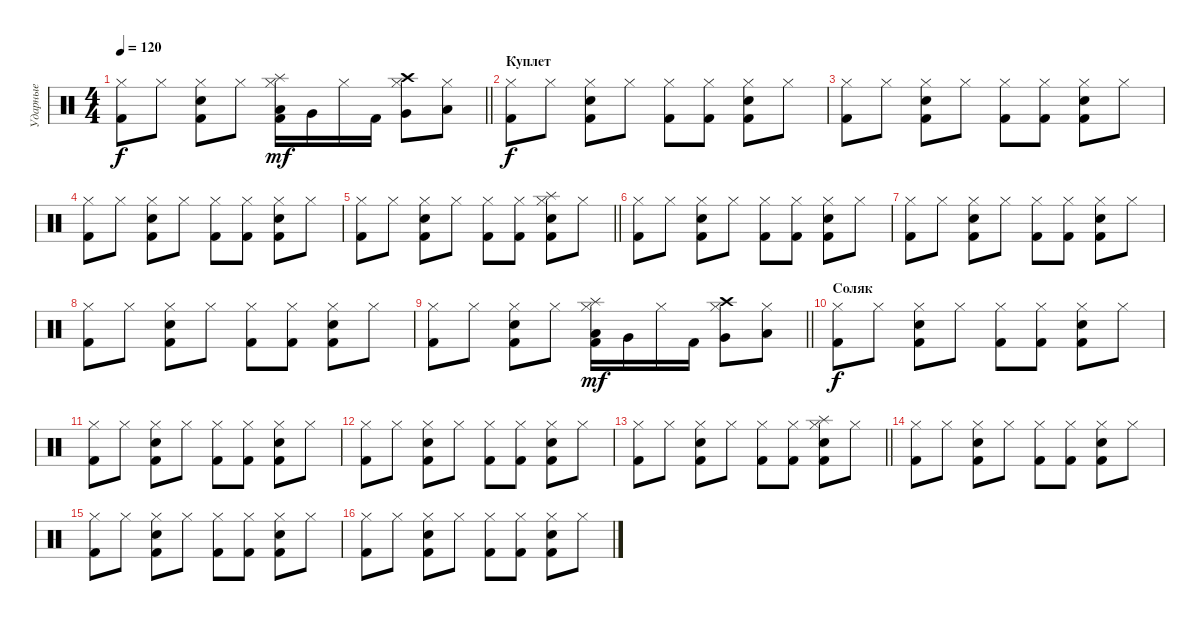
\track ("Ударные" "Ударные") {instrument percussion}
\staff {score}
\articulation defaults
\ts (4 4)
\tempo 120
\clef neutral
\barLineRight lightlight
\ks c
("Hi-Hat (closed)" "Kick (hit) 2").8{dy f} "Hi-Hat (closed)".8 ("Hi-Hat (closed)" "Kick (hit) 2" "Electric Snare (hit)").8 "Hi-Hat (closed)".8 ("Low Tom (hit)" "Hi-Hat (closed)" "Kick (hit) 2" "Splash (hit)").16{dy mf} "Very Low Tom (hit)".16 "Hi-Hat (closed)".16 "Kick (hit) 2".16 ("Very Low Tom (hit)" "Hi-Hat (closed)" "Crash high (hit)").8 ("Low Floor Tom (hit)" "Hi-Hat (closed)").8 |
\section ("" "Куплет")
("Hi-Hat (closed)" "Kick (hit) 2").8{dy f} "Hi-Hat (closed)".8 ("Hi-Hat (closed)" "Kick (hit) 2" "Electric Snare (hit)").8 "Hi-Hat (closed)".8 ("Hi-Hat (closed)" "Kick (hit) 2").8 ("Hi-Hat (closed)" "Kick (hit) 2").8 ("Hi-Hat (closed)" "Kick (hit) 2" "Electric Snare (hit)").8 "Hi-Hat (closed)".8 |
("Hi-Hat (closed)" "Kick (hit) 2").8 "Hi-Hat (closed)".8 ("Hi-Hat (closed)" "Kick (hit) 2" "Electric Snare (hit)").8 "Hi-Hat (closed)".8 ("Hi-Hat (closed)" "Kick (hit) 2").8 ("Hi-Hat (closed)" "Kick (hit) 2").8 ("Hi-Hat (closed)" "Kick (hit) 2" "Electric Snare (hit)").8 "Hi-Hat (closed)".8 |
("Hi-Hat (closed)" "Kick (hit) 2").8 "Hi-Hat (closed)".8 ("Hi-Hat (closed)" "Kick (hit) 2" "Electric Snare (hit)").8 "Hi-Hat (closed)".8 ("Hi-Hat (closed)" "Kick (hit) 2").8 ("Hi-Hat (closed)" "Kick (hit) 2").8 ("Hi-Hat (closed)" "Kick (hit) 2" "Electric Snare (hit)").8 "Hi-Hat (closed)".8 |
\barLineRight lightlight
("Hi-Hat (closed)" "Kick (hit) 2").8 "Hi-Hat (closed)".8 ("Hi-Hat (closed)" "Kick (hit) 2" "Electric Snare (hit)").8 "Hi-Hat (closed)".8 ("Hi-Hat (closed)" "Kick (hit) 2").8 ("Hi-Hat (closed)" "Kick (hit) 2").8 ("Hi-Hat (closed)" "Kick (hit) 2" "Electric Snare (hit)" "Splash (hit)").8 "Hi-Hat (closed)".8 |
("Hi-Hat (closed)" "Kick (hit) 2").8 "Hi-Hat (closed)".8 ("Hi-Hat (closed)" "Kick (hit) 2" "Electric Snare (hit)").8 "Hi-Hat (closed)".8 ("Hi-Hat (closed)" "Kick (hit) 2").8 ("Hi-Hat (closed)" "Kick (hit) 2").8 ("Hi-Hat (closed)" "Kick (hit) 2" "Electric Snare (hit)").8 "Hi-Hat (closed)".8 |
("Hi-Hat (closed)" "Kick (hit) 2").8 "Hi-Hat (closed)".8 ("Hi-Hat (closed)" "Kick (hit) 2" "Electric Snare (hit)").8 "Hi-Hat (closed)".8 ("Hi-Hat (closed)" "Kick (hit) 2").8 ("Hi-Hat (closed)" "Kick (hit) 2").8 ("Hi-Hat (closed)" "Kick (hit) 2" "Electric Snare (hit)").8 "Hi-Hat (closed)".8 |
("Hi-Hat (closed)" "Kick (hit) 2").8 "Hi-Hat (closed)".8 ("Hi-Hat (closed)" "Kick (hit) 2" "Electric Snare (hit)").8 "Hi-Hat (closed)".8 ("Hi-Hat (closed)" "Kick (hit) 2").8 ("Hi-Hat (closed)" "Kick (hit) 2").8 ("Hi-Hat (closed)" "Kick (hit) 2" "Electric Snare (hit)").8 "Hi-Hat (closed)".8 |
\barLineRight lightlight
("Hi-Hat (closed)" "Kick (hit) 2").8 "Hi-Hat (closed)".8 ("Hi-Hat (closed)" "Kick (hit) 2" "Electric Snare (hit)").8 "Hi-Hat (closed)".8 ("Low Tom (hit)" "Hi-Hat (closed)" "Kick (hit) 2" "Splash (hit)").16{dy mf} "Very Low Tom (hit)".16 "Hi-Hat (closed)".16 "Kick (hit) 2".16 ("Very Low Tom (hit)" "Hi-Hat (closed)" "Crash high (hit)").8 ("Low Floor Tom (hit)" "Hi-Hat (closed)").8 |
\section ("" "Соляк")
("Hi-Hat (closed)" "Kick (hit) 2").8{dy f} "Hi-Hat (closed)".8 ("Hi-Hat (closed)" "Kick (hit) 2" "Electric Snare (hit)").8 "Hi-Hat (closed)".8 ("Hi-Hat (closed)" "Kick (hit) 2").8 ("Hi-Hat (closed)" "Kick (hit) 2").8 ("Hi-Hat (closed)" "Kick (hit) 2" "Electric Snare (hit)").8 "Hi-Hat (closed)".8 |
("Hi-Hat (closed)" "Kick (hit) 2").8 "Hi-Hat (closed)".8 ("Hi-Hat (closed)" "Kick (hit) 2" "Electric Snare (hit)").8 "Hi-Hat (closed)".8 ("Hi-Hat (closed)" "Kick (hit) 2").8 ("Hi-Hat (closed)" "Kick (hit) 2").8 ("Hi-Hat (closed)" "Kick (hit) 2" "Electric Snare (hit)").8 "Hi-Hat (closed)".8 |
("Hi-Hat (closed)" "Kick (hit) 2").8 "Hi-Hat (closed)".8 ("Hi-Hat (closed)" "Kick (hit) 2" "Electric Snare (hit)").8 "Hi-Hat (closed)".8 ("Hi-Hat (closed)" "Kick (hit) 2").8 ("Hi-Hat (closed)" "Kick (hit) 2").8 ("Hi-Hat (closed)" "Kick (hit) 2" "Electric Snare (hit)").8 "Hi-Hat (closed)".8 |
\barLineRight lightlight
("Hi-Hat (closed)" "Kick (hit) 2").8 "Hi-Hat (closed)".8 ("Hi-Hat (closed)" "Kick (hit) 2" "Electric Snare (hit)").8 "Hi-Hat (closed)".8 ("Hi-Hat (closed)" "Kick (hit) 2").8 ("Hi-Hat (closed)" "Kick (hit) 2").8 ("Hi-Hat (closed)" "Kick (hit) 2" "Electric Snare (hit)" "Splash (hit)").8 "Hi-Hat (closed)".8 |
("Hi-Hat (closed)" "Kick (hit) 2").8 "Hi-Hat (closed)".8 ("Hi-Hat (closed)" "Kick (hit) 2" "Electric Snare (hit)").8 "Hi-Hat (closed)".8 ("Hi-Hat (closed)" "Kick (hit) 2").8 ("Hi-Hat (closed)" "Kick (hit) 2").8 ("Hi-Hat (closed)" "Kick (hit) 2" "Electric Snare (hit)").8 "Hi-Hat (closed)".8 |
("Hi-Hat (closed)" "Kick (hit) 2").8 "Hi-Hat (closed)".8 ("Hi-Hat (closed)" "Kick (hit) 2" "Electric Snare (hit)").8 "Hi-Hat (closed)".8 ("Hi-Hat (closed)" "Kick (hit) 2").8 ("Hi-Hat (closed)" "Kick (hit) 2").8 ("Hi-Hat (closed)" "Kick (hit) 2" "Electric Snare (hit)").8 "Hi-Hat (closed)".8 |
("Hi-Hat (closed)" "Kick (hit) 2").8 "Hi-Hat (closed)".8 ("Hi-Hat (closed)" "Kick (hit) 2" "Electric Snare (hit)").8 "Hi-Hat (closed)".8 ("Hi-Hat (closed)" "Kick (hit) 2").8 ("Hi-Hat (closed)" "Kick (hit) 2").8 ("Hi-Hat (closed)" "Kick (hit) 2" "Electric Snare (hit)").8 "Hi-Hat (closed)".8
